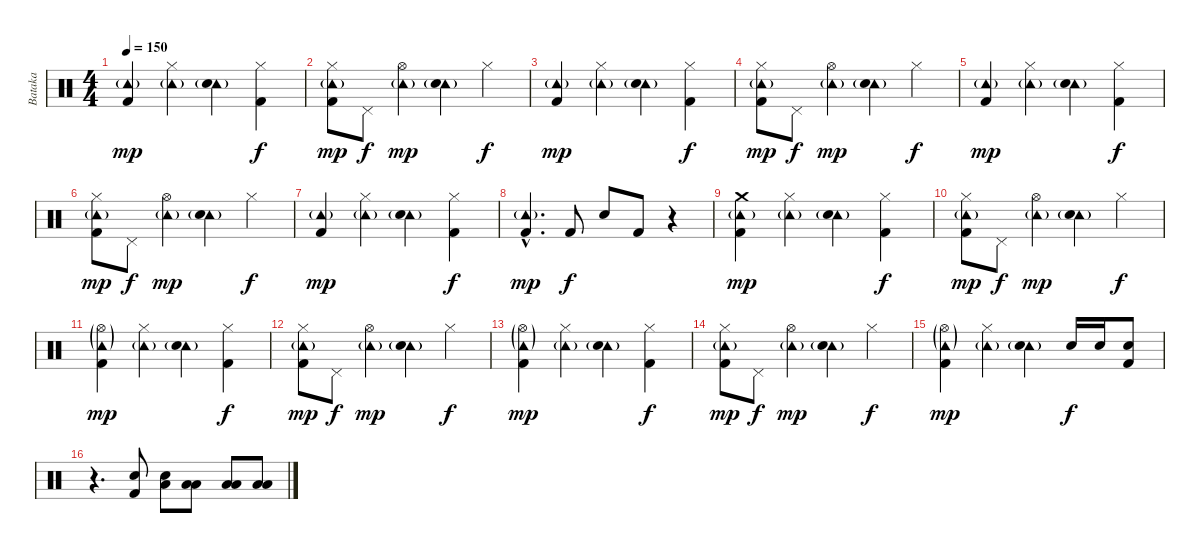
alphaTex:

\track ("Bataka" "Bataka") {instrument percussion}
\staff {score}
\articulation defaults
\ts (4 4)
\tempo 150
\clef neutral
\ks c
("Tambourine (hit)"{g} "Kick (hit) 2").4{dy mp} ("Tambourine (hit)"{g} "Hi-Hat (closed)").4 ("Tambourine (hit)"{g} "Electric Snare (hit)").4 ("Hi-Hat (closed)" "Kick (hit) 2").4{dy f} |
("Tambourine (hit)"{g} "Hi-Hat (closed)" "Kick (hit) 2").8{dy mp} "Pedal Hi-Hat (hit)".8{dy f} ("Tambourine (hit)"{g} "Hi-Hat (open)").4{dy mp} ("Tambourine (hit)"{g} "Electric Snare (hit)").4 "Hi-Hat (closed)".4{dy f} |
("Tambourine (hit)"{g} "Kick (hit) 2").4{dy mp} ("Tambourine (hit)"{g} "Hi-Hat (closed)").4 ("Tambourine (hit)"{g} "Electric Snare (hit)").4 ("Hi-Hat (closed)" "Kick (hit) 2").4{dy f} |
("Tambourine (hit)"{g} "Hi-Hat (closed)" "Kick (hit) 2").8{dy mp} "Pedal Hi-Hat (hit)".8{dy f} ("Tambourine (hit)"{g} "Hi-Hat (open)").4{dy mp} ("Tambourine (hit)"{g} "Electric Snare (hit)").4 "Hi-Hat (closed)".4{dy f} |
("Tambourine (hit)"{g} "Kick (hit) 2").4{dy mp} ("Tambourine (hit)"{g} "Hi-Hat (closed)").4 ("Tambourine (hit)"{g} "Electric Snare (hit)").4 ("Hi-Hat (closed)" "Kick (hit) 2").4{dy f} |
("Tambourine (hit)"{g} "Hi-Hat (closed)" "Kick (hit) 2").8{dy mp} "Pedal Hi-Hat (hit)".8{dy f} ("Tambourine (hit)"{g} "Hi-Hat (open)").4{dy mp} ("Tambourine (hit)"{g} "Electric Snare (hit)").4 "Hi-Hat (closed)".4{dy f} |
("Tambourine (hit)"{g} "Kick (hit) 2").4{dy mp} ("Tambourine (hit)"{g} "Hi-Hat (closed)").4 ("Tambourine (hit)"{g} "Electric Snare (hit)").4 ("Hi-Hat (closed)" "Kick (hit) 2").4{dy f} |
("Tambourine (hit)"{g hac} "Kick (hit) 2"{hac}).4{d dy mp} "Kick (hit) 2".8{dy f} "Electric Snare (hit)".8 "Kick (hit) 2".8 r.4 |
("Tambourine (hit)"{g} "Crash medium (hit)" "Kick (hit) 2").4{dy mp} ("Tambourine (hit)"{g} "Hi-Hat (closed)").4 ("Tambourine (hit)"{g} "Electric Snare (hit)").4 ("Hi-Hat (closed)" "Kick (hit) 2").4{dy f} |
("Tambourine (hit)"{g} "Hi-Hat (closed)" "Kick (hit) 2").8{dy mp} "Pedal Hi-Hat (hit)".8{dy f} ("Tambourine (hit)"{g} "Hi-Hat (open)").4{dy mp} ("Tambourine (hit)"{g} "Electric Snare (hit)").4 "Hi-Hat (closed)".4{dy f} |
("Tambourine (hit)"{g} "Hi-Hat (open)"{g} "Kick (hit) 2").4{dy mp} ("Tambourine (hit)"{g} "Hi-Hat (closed)").4 ("Tambourine (hit)"{g} "Electric Snare (hit)").4 ("Hi-Hat (closed)" "Kick (hit) 2").4{dy f} |
("Tambourine (hit)"{g} "Hi-Hat (closed)" "Kick (hit) 2").8{dy mp} "Pedal Hi-Hat (hit)".8{dy f} ("Tambourine (hit)"{g} "Hi-Hat (open)").4{dy mp} ("Tambourine (hit)"{g} "Electric Snare (hit)").4 "Hi-Hat (closed)".4{dy f} |
("Tambourine (hit)"{g} "Hi-Hat (open)"{g} "Kick (hit) 2").4{dy mp} ("Tambourine (hit)"{g} "Hi-Hat (closed)").4 ("Tambourine (hit)"{g} "Electric Snare (hit)").4 ("Hi-Hat (closed)" "Kick (hit) 2").4{dy f} |
("Tambourine (hit)"{g} "Hi-Hat (closed)" "Kick (hit) 2").8{dy mp} "Pedal Hi-Hat (hit)".8{dy f} ("Tambourine (hit)"{g} "Hi-Hat (open)").4{dy mp} ("Tambourine (hit)"{g} "Electric Snare (hit)").4 "Hi-Hat (closed)".4{dy f} |
("Tambourine (hit)"{g} "Hi-Hat (open)"{g} "Kick (hit) 2").4{dy mp} ("Tambourine (hit)"{g} "Hi-Hat (closed)").4 ("Tambourine (hit)"{g} "Electric Snare (hit)").4 "Electric Snare (hit)".16{dy f} "Electric Snare (hit)".16 ("Electric Snare (hit)" "Kick (hit) 2").8 |
r.4{d volume 12} ("Electric Snare (hit)" "Kick (hit) 2").8 ("Low Floor Tom (hit)" "Electric Snare (hit)").8 ("Low Tom (hit)" "Low Tom (hit)").8 ("Low Floor Tom (hit)" "Low Floor Tom (hit)").8 ("Low Floor Tom (hit)" "Low Floor Tom (hit)").8
